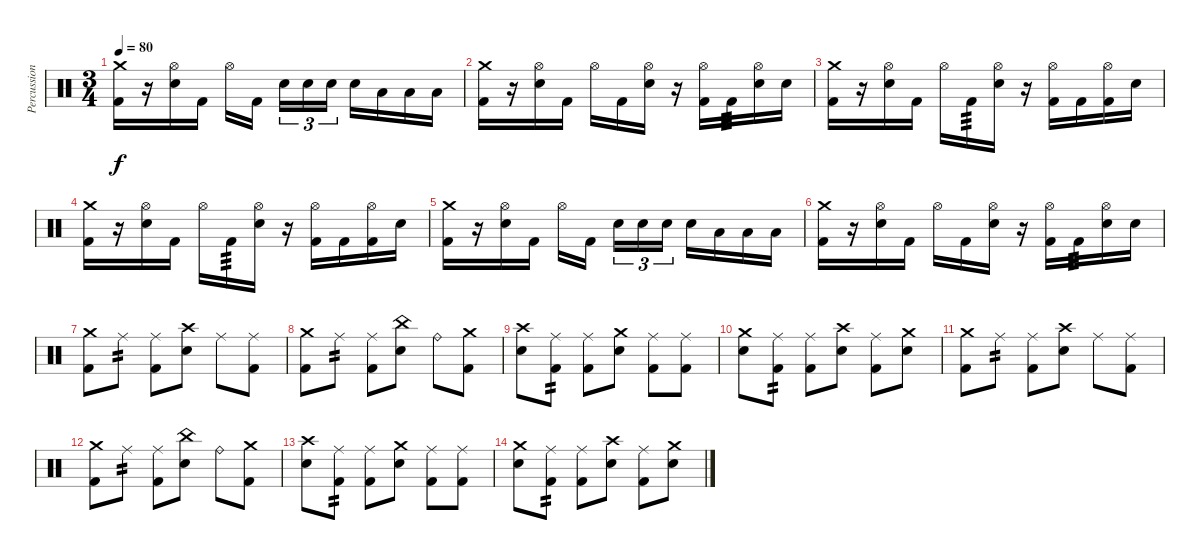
\track ("Percussion" "Percussion") {instrument percussion}
\staff {score}
\articulation defaults
\ts (3 4)
\tempo 80
\clef neutral
\ks c
("Kick (hit) 2" "Crash medium (hit)").16{dy f} r.16 ("Electric Snare (hit)" "Hi-Hat (open)").16 "Kick (hit) 2".16 "Hi-Hat (open)".16 "Kick (hit) 2".16{beam splitsecondary} "Electric Snare (hit)".16{tu (3 2)} "Electric Snare (hit)".16{tu (3 2)} "Electric Snare (hit)".16{tu (3 2)} "Electric Snare (hit)".16 "Low Tom (hit)".16 "Low Tom (hit)".16 "Low Tom (hit)".16 |
("Kick (hit) 2" "Crash medium (hit)").16 r.16 ("Electric Snare (hit)" "Hi-Hat (open)").16 "Kick (hit) 2".16 "Hi-Hat (open)".16 "Kick (hit) 2".16 ("Electric Snare (hit)" "Hi-Hat (open)").16 r.16 ("Kick (hit) 2" "Hi-Hat (open)").16 "Kick (hit) 2".16{tp 3} ("Electric Snare (hit)" "Hi-Hat (open)").16 "Electric Snare (hit)".16 |
("Kick (hit) 2" "Crash medium (hit)").16 r.16 ("Electric Snare (hit)" "Hi-Hat (open)").16 "Kick (hit) 2".16 "Hi-Hat (open)".16 "Kick (hit) 2".16{tp 3} ("Electric Snare (hit)" "Hi-Hat (open)").16 r.16 ("Kick (hit) 2" "Hi-Hat (open)").16 "Kick (hit) 2".16 ("Kick (hit) 2" "Hi-Hat (open)").16 "Electric Snare (hit)".16 |
("Kick (hit) 2" "Crash medium (hit)").16 r.16 ("Electric Snare (hit)" "Hi-Hat (open)").16 "Kick (hit) 2".16 "Hi-Hat (open)".16 "Kick (hit) 2".16{tp 3} ("Electric Snare (hit)" "Hi-Hat (open)").16 r.16 ("Kick (hit) 2" "Hi-Hat (open)").16 "Kick (hit) 2".16 ("Kick (hit) 2" "Hi-Hat (open)").16 "Electric Snare (hit)".16 |
("Kick (hit) 2" "Crash medium (hit)").16 r.16 ("Electric Snare (hit)" "Hi-Hat (open)").16 "Kick (hit) 2".16 "Hi-Hat (open)".16 "Kick (hit) 2".16{beam splitsecondary} "Electric Snare (hit)".16{tu (3 2)} "Electric Snare (hit)".16{tu (3 2)} "Electric Snare (hit)".16{tu (3 2)} "Electric Snare (hit)".16 "Low Tom (hit)".16 "Low Tom (hit)".16 "Low Tom (hit)".16 |
("Kick (hit) 2" "Crash medium (hit)").16 r.16 ("Electric Snare (hit)" "Hi-Hat (open)").16 "Kick (hit) 2".16 "Hi-Hat (open)".16 "Kick (hit) 2".16 ("Electric Snare (hit)" "Hi-Hat (open)").16 r.16 ("Kick (hit) 2" "Hi-Hat (open)").16 "Kick (hit) 2".16{tp 3} ("Electric Snare (hit)" "Hi-Hat (open)").16 "Electric Snare (hit)".16 |
("Crash medium (hit)" "Kick (hit) 2").8 "Ride (middle)".8{tp 2} ("Ride (middle)" "Kick (hit) 2").8 ("Crash high (hit)" "Electric Snare (hit)").8 "Ride (middle)".8 ("Ride (middle)" "Kick (hit) 2").8 |
("Crash medium (hit)" "Kick (hit) 2").8 "Ride (middle)".8{tp 2} ("Ride (middle)" "Kick (hit) 2").8 ("China (hit)" "Electric Snare (hit)").8 "Ride (bell)".8 ("Crash medium (hit)" "Kick (hit) 2").8 |
("Crash high (hit)" "Electric Snare (hit)").8 ("Ride (middle)" "Kick (hit) 2").8{tp 2} ("Ride (middle)" "Kick (hit) 2").8 ("Crash medium (hit)" "Electric Snare (hit)").8 ("Ride (middle)" "Kick (hit) 2").8 ("Ride (middle)" "Kick (hit) 2").8 |
("Crash medium (hit)" "Electric Snare (hit)").8 ("Ride (middle)" "Kick (hit) 2").8{tp 2} ("Ride (middle)" "Kick (hit) 2").8 ("Crash high (hit)" "Electric Snare (hit)").8 ("Ride (middle)" "Kick (hit) 2").8 ("Crash medium (hit)" "Electric Snare (hit)").8 |
("Crash medium (hit)" "Kick (hit) 2").8 "Ride (middle)".8{tp 2} ("Ride (middle)" "Kick (hit) 2").8 ("Crash high (hit)" "Electric Snare (hit)").8 "Ride (middle)".8 ("Ride (middle)" "Kick (hit) 2").8 |
("Crash medium (hit)" "Kick (hit) 2").8 "Ride (middle)".8{tp 2} ("Ride (middle)" "Kick (hit) 2").8 ("China (hit)" "Electric Snare (hit)").8 "Ride (bell)".8 ("Crash medium (hit)" "Kick (hit) 2").8 |
("Crash high (hit)" "Electric Snare (hit)").8 ("Ride (middle)" "Kick (hit) 2").8{tp 2} ("Ride (middle)" "Kick (hit) 2").8 ("Crash medium (hit)" "Electric Snare (hit)").8 ("Ride (middle)" "Kick (hit) 2").8 ("Ride (middle)" "Kick (hit) 2").8 |
("Crash medium (hit)" "Electric Snare (hit)").8 ("Ride (middle)" "Kick (hit) 2").8{tp 2} ("Ride (middle)" "Kick (hit) 2").8 ("Crash high (hit)" "Electric Snare (hit)").8 ("Ride (middle)" "Kick (hit) 2").8 ("Crash medium (hit)" "Electric Snare (hit)").8
